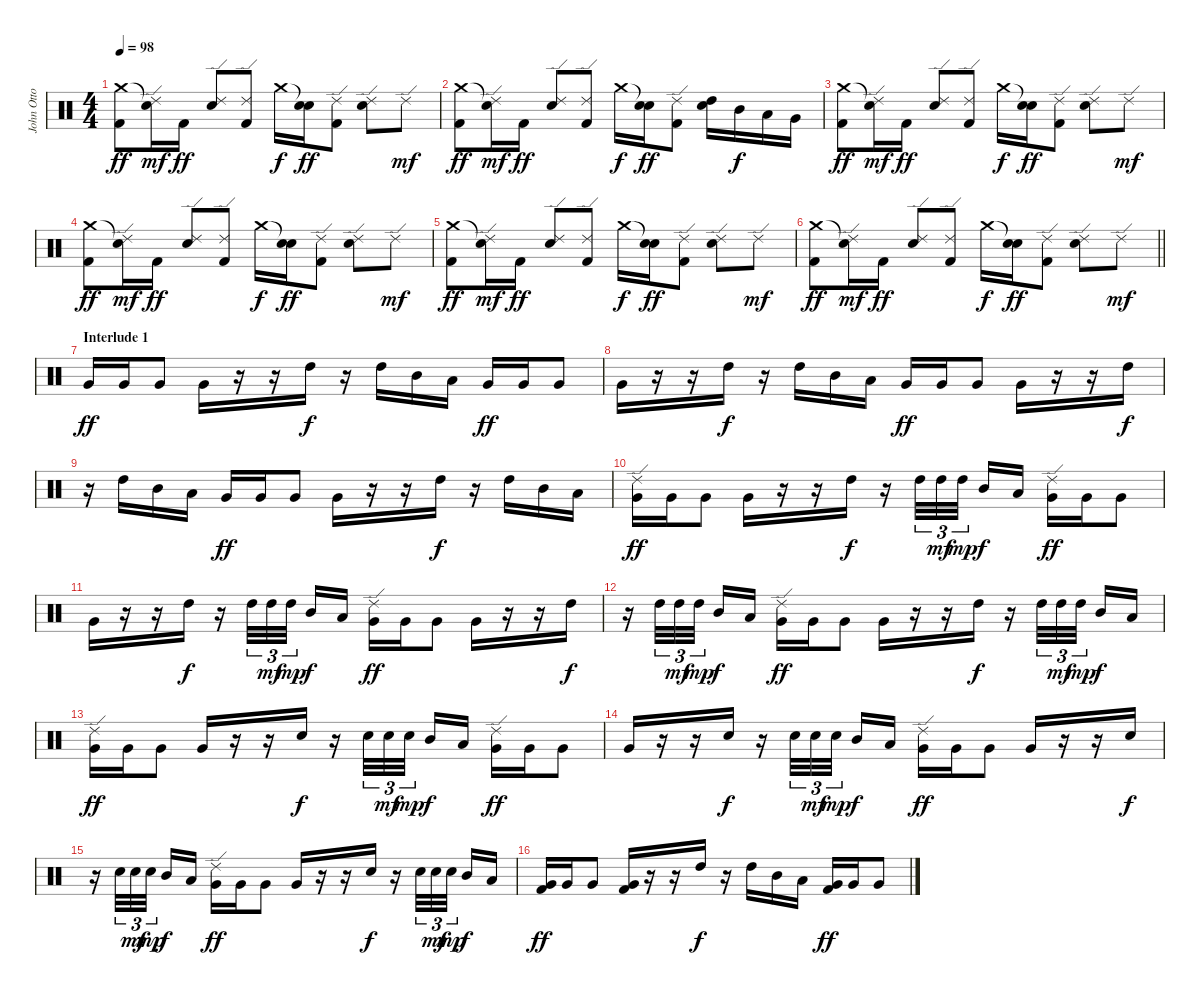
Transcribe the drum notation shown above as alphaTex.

\track ("John Otto (Drums)" "John Otto ") {instrument percussion}
\staff {score}
\articulation defaults
\ts (4 4)
\tempo 98
\clef neutral
\ks c
("Crash medium (hit)" "Kick (hit) 2").8{dy ff} ("Snare (hit)"{t} "Ride (edge) 2").16{dy mf} "Kick (hit) 2".16{dy ff} ("Ride (edge) 2" "Snare (hit) 2").8 ("Ride (edge) 2" "Kick (hit) 2").8 "Crash medium (hit)".16{dy f} ("Snare (hit)"{t} "Snare (hit) 2").16{dy ff} ("Ride (edge) 2" "Kick (hit) 2").8 ("Ride (edge) 2" "Snare (hit) 2").8 "Ride (edge) 2".8{dy mf} |
("Crash medium (hit)" "Kick (hit) 2").8{dy ff} ("Snare (hit)"{t} "Ride (edge) 2").16{dy mf} "Kick (hit) 2".16{dy ff} ("Ride (edge) 2" "Snare (hit) 2").8 ("Ride (edge) 2" "Kick (hit) 2").8 "Crash medium (hit)".16{dy f} ("Snare (hit)"{t} "Snare (hit) 2").16{dy ff} ("Ride (edge) 2" "Kick (hit) 2").8 ("High Tom (hit)" "Snare (hit) 2").16 "Mid Tom (hit)".16{dy f} "Low Tom (hit)".16 "Very Low Tom (hit)".16 |
("Crash medium (hit)" "Kick (hit) 2").8{dy ff} ("Snare (hit)"{t} "Ride (edge) 2").16{dy mf} "Kick (hit) 2".16{dy ff} ("Ride (edge) 2" "Snare (hit) 2").8 ("Ride (edge) 2" "Kick (hit) 2").8 "Crash medium (hit)".16{dy f} ("Snare (hit)"{t} "Snare (hit) 2").16{dy ff} ("Ride (edge) 2" "Kick (hit) 2").8 ("Ride (edge) 2" "Snare (hit) 2").8 "Ride (edge) 2".8{dy mf} |
("Crash medium (hit)" "Kick (hit) 2").8{dy ff} ("Snare (hit)"{t} "Ride (edge) 2").16{dy mf} "Kick (hit) 2".16{dy ff} ("Ride (edge) 2" "Snare (hit) 2").8 ("Ride (edge) 2" "Kick (hit) 2").8 "Crash medium (hit)".16{dy f} ("Snare (hit)"{t} "Snare (hit) 2").16{dy ff} ("Ride (edge) 2" "Kick (hit) 2").8 ("Ride (edge) 2" "Snare (hit) 2").8 "Ride (edge) 2".8{dy mf} |
("Crash medium (hit)" "Kick (hit) 2").8{dy ff} ("Snare (hit)"{t} "Ride (edge) 2").16{dy mf} "Kick (hit) 2".16{dy ff} ("Ride (edge) 2" "Snare (hit) 2").8 ("Ride (edge) 2" "Kick (hit) 2").8 "Crash medium (hit)".16{dy f} ("Snare (hit)"{t} "Snare (hit) 2").16{dy ff} ("Ride (edge) 2" "Kick (hit) 2").8 ("Ride (edge) 2" "Snare (hit) 2").8 "Ride (edge) 2".8{dy mf} |
\barLineRight lightlight
("Crash medium (hit)" "Kick (hit) 2").8{dy ff} ("Snare (hit)"{t} "Ride (edge) 2").16{dy mf} "Kick (hit) 2".16{dy ff} ("Ride (edge) 2" "Snare (hit) 2").8 ("Ride (edge) 2" "Kick (hit) 2").8 "Crash medium (hit)".16{dy f} ("Snare (hit)"{t} "Snare (hit) 2").16{dy ff} ("Ride (edge) 2" "Kick (hit) 2").8 ("Ride (edge) 2" "Snare (hit) 2").8 "Ride (edge) 2".8{dy mf} |
\section ("" "Interlude 1")
"Very Low Tom (hit)".16{dy ff volume 10} "Very Low Tom (hit)".16 "Very Low Tom (hit)".8 "Very Low Tom (hit)".16 r.16 r.16 "High Tom (hit)".16{dy f} r.16 "High Tom (hit)".16 "Mid Tom (hit)".16 "Low Tom (hit)".16 "Very Low Tom (hit)".16{dy ff} "Very Low Tom (hit)".16 "Very Low Tom (hit)".8 |
"Very Low Tom (hit)".16 r.16 r.16 "High Tom (hit)".16{dy f} r.16 "High Tom (hit)".16 "Mid Tom (hit)".16 "Low Tom (hit)".16 "Very Low Tom (hit)".16{dy ff} "Very Low Tom (hit)".16 "Very Low Tom (hit)".8 "Very Low Tom (hit)".16 r.16 r.16 "High Tom (hit)".16{dy f} |
r.16 "High Tom (hit)".16 "Mid Tom (hit)".16 "Low Tom (hit)".16 "Very Low Tom (hit)".16{dy ff} "Very Low Tom (hit)".16 "Very Low Tom (hit)".8 "Very Low Tom (hit)".16 r.16 r.16 "High Tom (hit)".16{dy f} r.16 "High Tom (hit)".16 "Mid Tom (hit)".16 "Low Tom (hit)".16 |
("Ride (edge) 2" "Very Low Tom (hit)").16{dy ff volume 12} "Very Low Tom (hit)".16 "Very Low Tom (hit)".8 "Very Low Tom (hit)".16 r.16 r.16 "High Tom (hit)".16{dy f} r.16 "High Tom (hit)".32{tu (3 2)} "High Tom (hit)".32{tu (3 2) dy mf} "High Tom (hit)".32{tu (3 2) dy mp beam splitsecondary} "Mid Tom (hit)".16{dy f} "Low Tom (hit)".16 ("Ride (edge) 2" "Very Low Tom (hit)").16{dy ff} "Very Low Tom (hit)".16 "Very Low Tom (hit)".8 |
"Very Low Tom (hit)".16 r.16 r.16 "High Tom (hit)".16{dy f} r.16 "High Tom (hit)".32{tu (3 2)} "High Tom (hit)".32{tu (3 2) dy mf} "High Tom (hit)".32{tu (3 2) dy mp beam splitsecondary} "Mid Tom (hit)".16{dy f} "Low Tom (hit)".16 ("Ride (edge) 2" "Very Low Tom (hit)").16{dy ff} "Very Low Tom (hit)".16 "Very Low Tom (hit)".8 "Very Low Tom (hit)".16 r.16 r.16 "High Tom (hit)".16{dy f} |
r.16 "High Tom (hit)".32{tu (3 2)} "High Tom (hit)".32{tu (3 2) dy mf} "High Tom (hit)".32{tu (3 2) dy mp beam splitsecondary} "Mid Tom (hit)".16{dy f} "Low Tom (hit)".16 ("Ride (edge) 2" "Very Low Tom (hit)").16{dy ff} "Very Low Tom (hit)".16 "Very Low Tom (hit)".8 "Very Low Tom (hit)".16 r.16 r.16 "High Tom (hit)".16{dy f} r.16 "High Tom (hit)".32{tu (3 2)} "High Tom (hit)".32{tu (3 2) dy mf} "High Tom (hit)".32{tu (3 2) dy mp beam splitsecondary} "Mid Tom (hit)".16{dy f} "Low Tom (hit)".16 |
("Ride (edge) 2" "Very Low Tom (hit)").16{dy ff volume 13} "Very Low Tom (hit)".16 "Very Low Tom (hit)".8 "Very Low Tom (hit)".16 r.16 r.16 "Snare (hit) 2".16{dy f} r.16 "Snare (hit) 2".32{tu (3 2)} "Snare (hit) 2".32{tu (3 2) dy mf} "Snare (hit) 2".32{tu (3 2) dy mp beam splitsecondary} "Mid Tom (hit)".16{dy f} "Low Tom (hit)".16 ("Ride (edge) 2" "Very Low Tom (hit)").16{dy ff} "Very Low Tom (hit)".16 "Very Low Tom (hit)".8 |
"Very Low Tom (hit)".16 r.16 r.16 "Snare (hit) 2".16{dy f} r.16 "Snare (hit) 2".32{tu (3 2)} "Snare (hit) 2".32{tu (3 2) dy mf} "Snare (hit) 2".32{tu (3 2) dy mp beam splitsecondary} "Mid Tom (hit)".16{dy f} "Low Tom (hit)".16 ("Ride (edge) 2" "Very Low Tom (hit)").16{dy ff} "Very Low Tom (hit)".16 "Very Low Tom (hit)".8 "Very Low Tom (hit)".16 r.16 r.16 "Snare (hit) 2".16{dy f} |
r.16 "Snare (hit) 2".32{tu (3 2)} "Snare (hit) 2".32{tu (3 2) dy mf} "Snare (hit) 2".32{tu (3 2) dy mp beam splitsecondary} "Mid Tom (hit)".16{dy f} "Low Tom (hit)".16 ("Ride (edge) 2" "Very Low Tom (hit)").16{dy ff} "Very Low Tom (hit)".16 "Very Low Tom (hit)".8 "Very Low Tom (hit)".16 r.16 r.16 "Snare (hit) 2".16{dy f} r.16 "Snare (hit) 2".32{tu (3 2)} "Snare (hit) 2".32{tu (3 2) dy mf} "Snare (hit) 2".32{tu (3 2) dy mp beam splitsecondary} "Mid Tom (hit)".16{dy f} "Low Tom (hit)".16 |
("Very Low Tom (hit)" "Kick (hit) 2").16{dy ff volume 15} "Very Low Tom (hit)".16 "Very Low Tom (hit)".8 ("Very Low Tom (hit)" "Kick (hit) 2").16 r.16 r.16 "High Tom (hit)".16{dy f} r.16 "High Tom (hit)".16 "Mid Tom (hit)".16 "Low Tom (hit)".16 ("Very Low Tom (hit)" "Kick (hit) 2").16{dy ff} "Very Low Tom (hit)".16 "Very Low Tom (hit)".8
